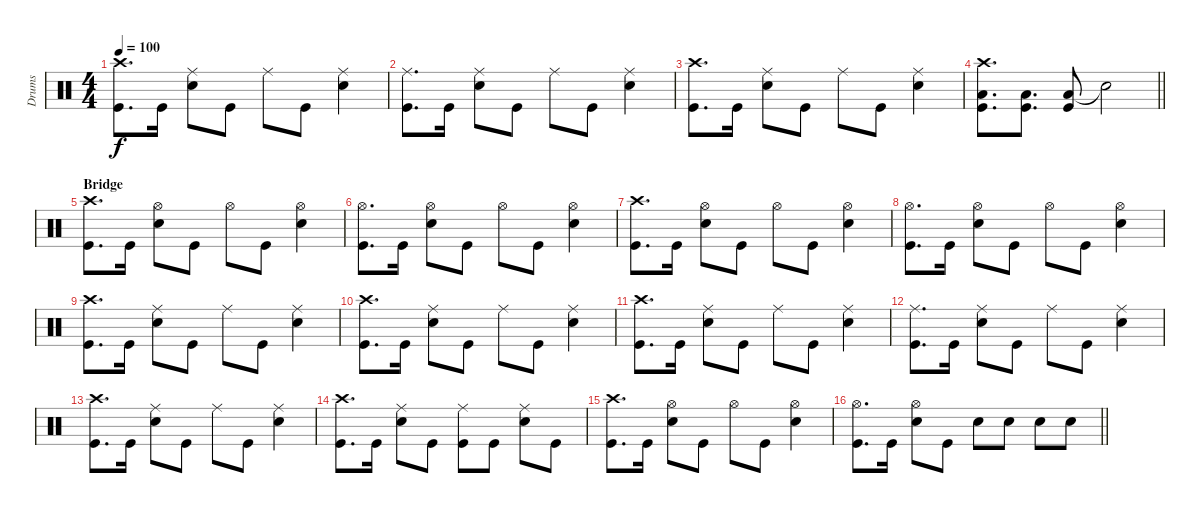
\track ("Drums" "Drums") {instrument percussion}
\staff {score}
\articulation defaults
\ts (4 4)
\tempo 100
\clef neutral
\ks c
("Crash high (hit)" "Kick (hit)").8{d dy f} "Kick (hit)".16 ("Ride (middle)" "Snare (hit) 2").8 "Kick (hit)".8 "Ride (middle)".8 "Kick (hit)".8 ("Ride (middle)" "Snare (hit) 2").4 |
("Ride (middle)" "Kick (hit)").8{d} "Kick (hit)".16 ("Ride (middle)" "Snare (hit) 2").8 "Kick (hit)".8 "Ride (middle)".8 "Kick (hit)".8 ("Ride (middle)" "Snare (hit) 2").4 |
("Crash high (hit)" "Kick (hit)").8{d} "Kick (hit)".16 ("Ride (middle)" "Snare (hit) 2").8 "Kick (hit)".8 "Ride (middle)".8 "Kick (hit)".8 ("Ride (middle)" "Snare (hit) 2").4 |
\barLineRight lightlight
("Crash high (hit)" "Low Tom (hit)" "Kick (hit)").8{d} ("Low Tom (hit)" "Kick (hit)").8{d} ("Low Tom (hit)" "Kick (hit)").8 "Snare (hit)"{t}.2 |
\section ("" "Bridge")
("Crash high (hit)" "Kick (hit)").8{d} "Kick (hit)".16 ("Hi-Hat (open)" "Snare (hit) 2").8 "Kick (hit)".8 "Hi-Hat (open)".8 "Kick (hit)".8 ("Hi-Hat (open)" "Snare (hit) 2").4 |
("Hi-Hat (open)" "Kick (hit)").8{d} "Kick (hit)".16 ("Hi-Hat (open)" "Snare (hit) 2").8 "Kick (hit)".8 "Hi-Hat (open)".8 "Kick (hit)".8 ("Hi-Hat (open)" "Snare (hit) 2").4 |
("Crash high (hit)" "Kick (hit)").8{d} "Kick (hit)".16 ("Hi-Hat (open)" "Snare (hit) 2").8 "Kick (hit)".8 "Hi-Hat (open)".8 "Kick (hit)".8 ("Hi-Hat (open)" "Snare (hit) 2").4 |
("Hi-Hat (open)" "Kick (hit)").8{d} "Kick (hit)".16 ("Hi-Hat (open)" "Snare (hit) 2").8 "Kick (hit)".8 "Hi-Hat (open)".8 "Kick (hit)".8 ("Hi-Hat (open)" "Snare (hit) 2").4 |
("Crash high (hit)" "Kick (hit)").8{d} "Kick (hit)".16 ("Ride (middle)" "Snare (hit) 2").8 "Kick (hit)".8 "Ride (middle)".8 "Kick (hit)".8 ("Ride (middle)" "Snare (hit) 2").4 |
("Crash high (hit)" "Kick (hit)").8{d} "Kick (hit)".16 ("Ride (middle)" "Snare (hit) 2").8 "Kick (hit)".8 "Ride (middle)".8 "Kick (hit)".8 ("Ride (middle)" "Snare (hit) 2").4 |
("Crash high (hit)" "Kick (hit)").8{d} "Kick (hit)".16 ("Ride (middle)" "Snare (hit) 2").8 "Kick (hit)".8 "Ride (middle)".8 "Kick (hit)".8 ("Ride (middle)" "Snare (hit) 2").4 |
("Ride (middle)" "Kick (hit)").8{d} "Kick (hit)".16 ("Ride (middle)" "Snare (hit) 2").8 "Kick (hit)".8 "Ride (middle)".8 "Kick (hit)".8 ("Ride (middle)" "Snare (hit) 2").4 |
("Crash high (hit)" "Kick (hit)").8{d} "Kick (hit)".16 ("Ride (middle)" "Snare (hit) 2").8 "Kick (hit)".8 "Ride (middle)".8 "Kick (hit)".8 ("Ride (middle)" "Snare (hit) 2").4 |
("Crash high (hit)" "Kick (hit)").8{d} "Kick (hit)".16 ("Ride (middle)" "Snare (hit) 2").8 "Kick (hit)".8 ("Ride (middle)" "Kick (hit)").8 "Kick (hit)".8 ("Ride (middle)" "Snare (hit) 2").8 "Kick (hit)".8 |
("Crash high (hit)" "Kick (hit)").8{d} "Kick (hit)".16 ("Hi-Hat (open)" "Snare (hit) 2").8 "Kick (hit)".8 "Hi-Hat (open)".8 "Kick (hit)".8 ("Hi-Hat (open)" "Snare (hit) 2").4 |
\barLineRight lightlight
("Hi-Hat (open)" "Kick (hit)").8{d} "Kick (hit)".16 ("Hi-Hat (open)" "Snare (hit) 2").8 "Kick (hit)".8 "Snare (hit) 2".8 "Snare (hit) 2".8 "Snare (hit) 2".8 "Snare (hit) 2".8
